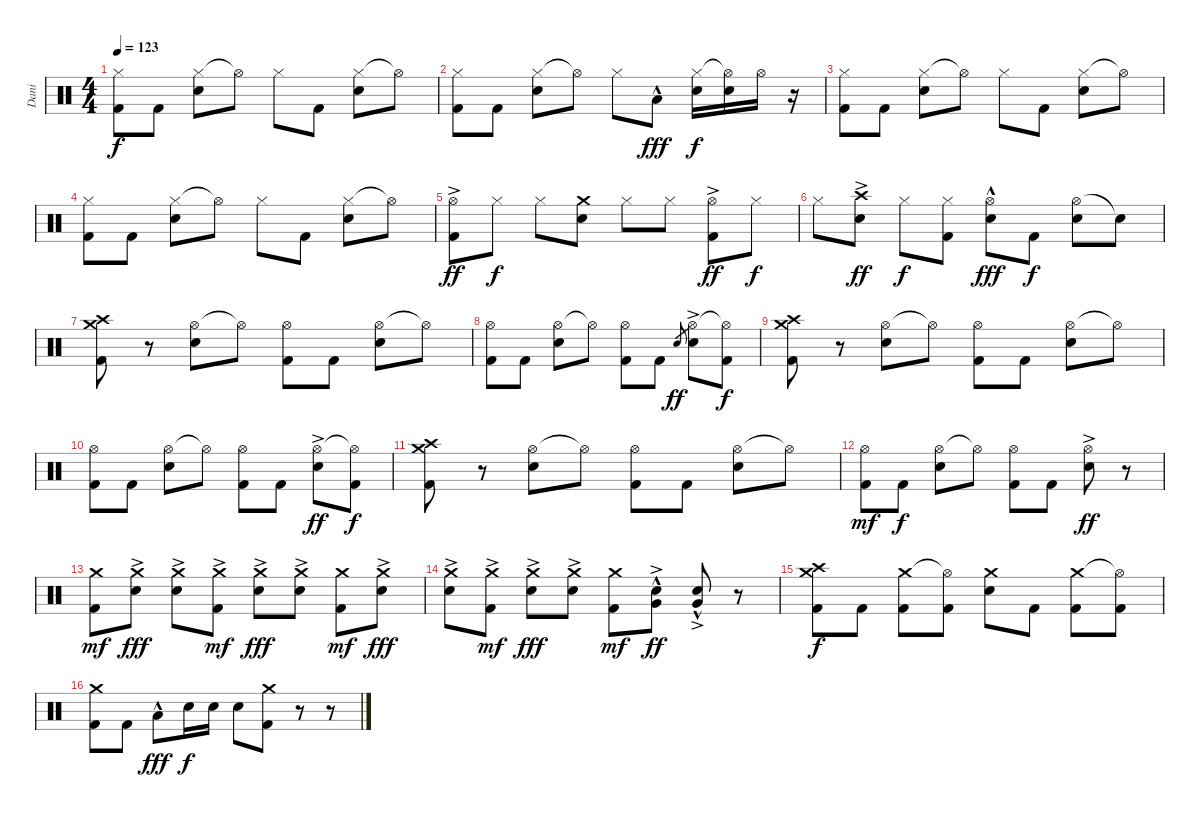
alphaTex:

\track ("Dani" "Dani") {instrument percussion}
\staff {score}
\articulation defaults
\ts (4 4)
\tempo 123
\clef neutral
\ks c
("Hi-Hat (closed)" "Kick (hit) 2").8{dy f} "Kick (hit) 2".8 ("Hi-Hat (closed)" "Snare (hit) 2").8 "Hi-Hat (open)"{t}.8 "Hi-Hat (closed)".8 "Kick (hit) 2".8 ("Hi-Hat (closed)" "Snare (hit) 2").8 "Hi-Hat (open)"{t}.8 |
("Hi-Hat (closed)" "Kick (hit) 2").8 "Kick (hit) 2".8 ("Hi-Hat (closed)" "Snare (hit) 2").8 "Hi-Hat (open)"{t}.8 "Hi-Hat (closed)".8 "Low Tom (hit)"{hac}.8{dy fff} ("Hi-Hat (closed)" "Snare (hit) 2").16{dy f} ("Hi-Hat (open)"{t} "Snare (hit) 2").16 "Hi-Hat (open)".16 r.16 |
("Hi-Hat (closed)" "Kick (hit) 2").8 "Kick (hit) 2".8 ("Hi-Hat (closed)" "Snare (hit) 2").8 "Hi-Hat (open)"{t}.8 "Hi-Hat (closed)".8 "Kick (hit) 2".8 ("Hi-Hat (closed)" "Snare (hit) 2").8 "Hi-Hat (open)"{t}.8 |
("Hi-Hat (closed)" "Kick (hit) 2").8 "Kick (hit) 2".8 ("Hi-Hat (closed)" "Snare (hit) 2").8 "Hi-Hat (open)"{t}.8 "Hi-Hat (closed)".8 "Kick (hit) 2".8 ("Hi-Hat (closed)" "Snare (hit) 2").8 "Hi-Hat (open)"{t}.8 |
("Hi-Hat (open)"{ac} "Kick (hit) 2"{ac}).8{dy ff} "Hi-Hat (closed)".8{dy f} "Hi-Hat (closed)".8 ("Crash medium (hit)" "Snare (hit) 2").8 "Hi-Hat (closed)".8 "Hi-Hat (closed)".8 ("Hi-Hat (open)"{ac} "Kick (hit) 2"{ac}).8{dy ff} "Hi-Hat (closed)".8{dy f} |
"Hi-Hat (closed)".8 ("Crash high (hit)" "Snare (hit) 2"{ac}).8{dy ff} "Hi-Hat (closed)".8{dy f} ("Hi-Hat (closed)" "Kick (hit) 2").8 ("Hi-Hat (open)" "Snare (hit) 2"{hac}).8{dy fff} "Kick (hit) 2".8{dy f} ("Hi-Hat (open)" "Snare (hit) 2").8 "Snare (hit)"{t}.8 |
("Crash high (hit)" "Crash medium (hit)" "Kick (hit) 2").8 r.8 ("Hi-Hat (open)" "Snare (hit) 2").8 "Hi-Hat (open)"{t}.8 ("Hi-Hat (open)" "Kick (hit) 2").8 "Kick (hit) 2".8 ("Hi-Hat (open)" "Snare (hit) 2").8 "Hi-Hat (open)"{t}.8 |
("Hi-Hat (open)" "Kick (hit) 2").8 "Kick (hit) 2".8 ("Hi-Hat (open)" "Snare (hit) 2").8 "Hi-Hat (open)"{t}.8 ("Hi-Hat (open)" "Kick (hit) 2").8 "Kick (hit) 2".8 "Snare (hit) 2".8{gr dy ff} ("Hi-Hat (open)" "Snare (hit) 2"{ac}).8 ("Hi-Hat (open)"{t} "Kick (hit) 2").8{dy f} |
("Crash high (hit)" "Crash medium (hit)" "Kick (hit) 2").8 r.8 ("Hi-Hat (open)" "Snare (hit) 2").8 "Hi-Hat (open)"{t}.8 ("Hi-Hat (open)" "Kick (hit) 2").8 "Kick (hit) 2".8 ("Hi-Hat (open)" "Snare (hit) 2").8 "Hi-Hat (open)"{t}.8 |
("Hi-Hat (open)" "Kick (hit) 2").8 "Kick (hit) 2".8 ("Hi-Hat (open)" "Snare (hit) 2").8 "Hi-Hat (open)"{t}.8 ("Hi-Hat (open)" "Kick (hit) 2").8 "Kick (hit) 2".8 ("Hi-Hat (open)" "Snare (hit) 2"{ac}).8{dy ff} ("Hi-Hat (open)"{t} "Kick (hit) 2").8{dy f} |
("Crash high (hit)" "Crash medium (hit)" "Kick (hit) 2").8 r.8 ("Hi-Hat (open)" "Snare (hit) 2").8 "Hi-Hat (open)"{t}.8 ("Hi-Hat (open)" "Kick (hit) 2").8 "Kick (hit) 2".8 ("Hi-Hat (open)" "Snare (hit) 2").8 "Hi-Hat (open)"{t}.8 |
("Hi-Hat (open)" "Kick (hit) 2").8{dy mf} "Kick (hit) 2".8{dy f} ("Hi-Hat (open)" "Snare (hit) 2").8 "Hi-Hat (open)"{t}.8 ("Hi-Hat (open)" "Kick (hit) 2").8 "Kick (hit) 2".8 ("Hi-Hat (open)" "Snare (hit) 2"{ac}).8{dy ff} r.8 |
("Crash medium (hit)" "Kick (hit) 2").8{dy mf} ("Crash medium (hit)" "Snare (hit) 2"{ac}).8{dy fff} ("Crash medium (hit)" "Snare (hit) 2"{ac}).8 ("Crash medium (hit)" "Kick (hit) 2"{ac}).8{dy mf} ("Crash medium (hit)" "Snare (hit) 2"{ac}).8{dy fff} ("Crash medium (hit)" "Snare (hit) 2"{ac}).8 ("Crash medium (hit)" "Kick (hit) 2").8{dy mf} ("Crash medium (hit)" "Snare (hit) 2"{ac}).8{dy fff} |
("Crash medium (hit)" "Snare (hit) 2"{ac}).8 ("Crash medium (hit)" "Kick (hit) 2"{ac}).8{dy mf} ("Crash medium (hit)" "Snare (hit) 2"{ac}).8{dy fff} ("Crash medium (hit)" "Snare (hit) 2"{ac}).8 ("Crash medium (hit)" "Kick (hit) 2").8{dy mf} ("Very Low Tom (hit)"{hac} "Snare (hit) 2"{ac}).8{dy ff} ("Very Low Tom (hit)"{hac} "Snare (hit) 2"{ac}).8 r.8 |
("Crash high (hit)" "Crash medium (hit)" "Kick (hit) 2").8{dy f} "Kick (hit) 2".8 ("Crash medium (hit)" "Kick (hit) 2").8 ("Hi-Hat (open)"{t} "Kick (hit) 2").8 ("Crash medium (hit)" "Snare (hit) 2").8 "Kick (hit) 2".8 ("Crash medium (hit)" "Kick (hit) 2").8 ("Hi-Hat (open)"{t} "Kick (hit) 2").8 |
("Crash medium (hit)" "Kick (hit) 2").8 "Kick (hit) 2".8 "Low Tom (hit)"{hac}.8{dy fff} "Snare (hit) 2".16{dy f} "Snare (hit) 2".16 "Snare (hit) 2".8 ("Crash medium (hit)" "Kick (hit) 2").8 r.8 r.8
